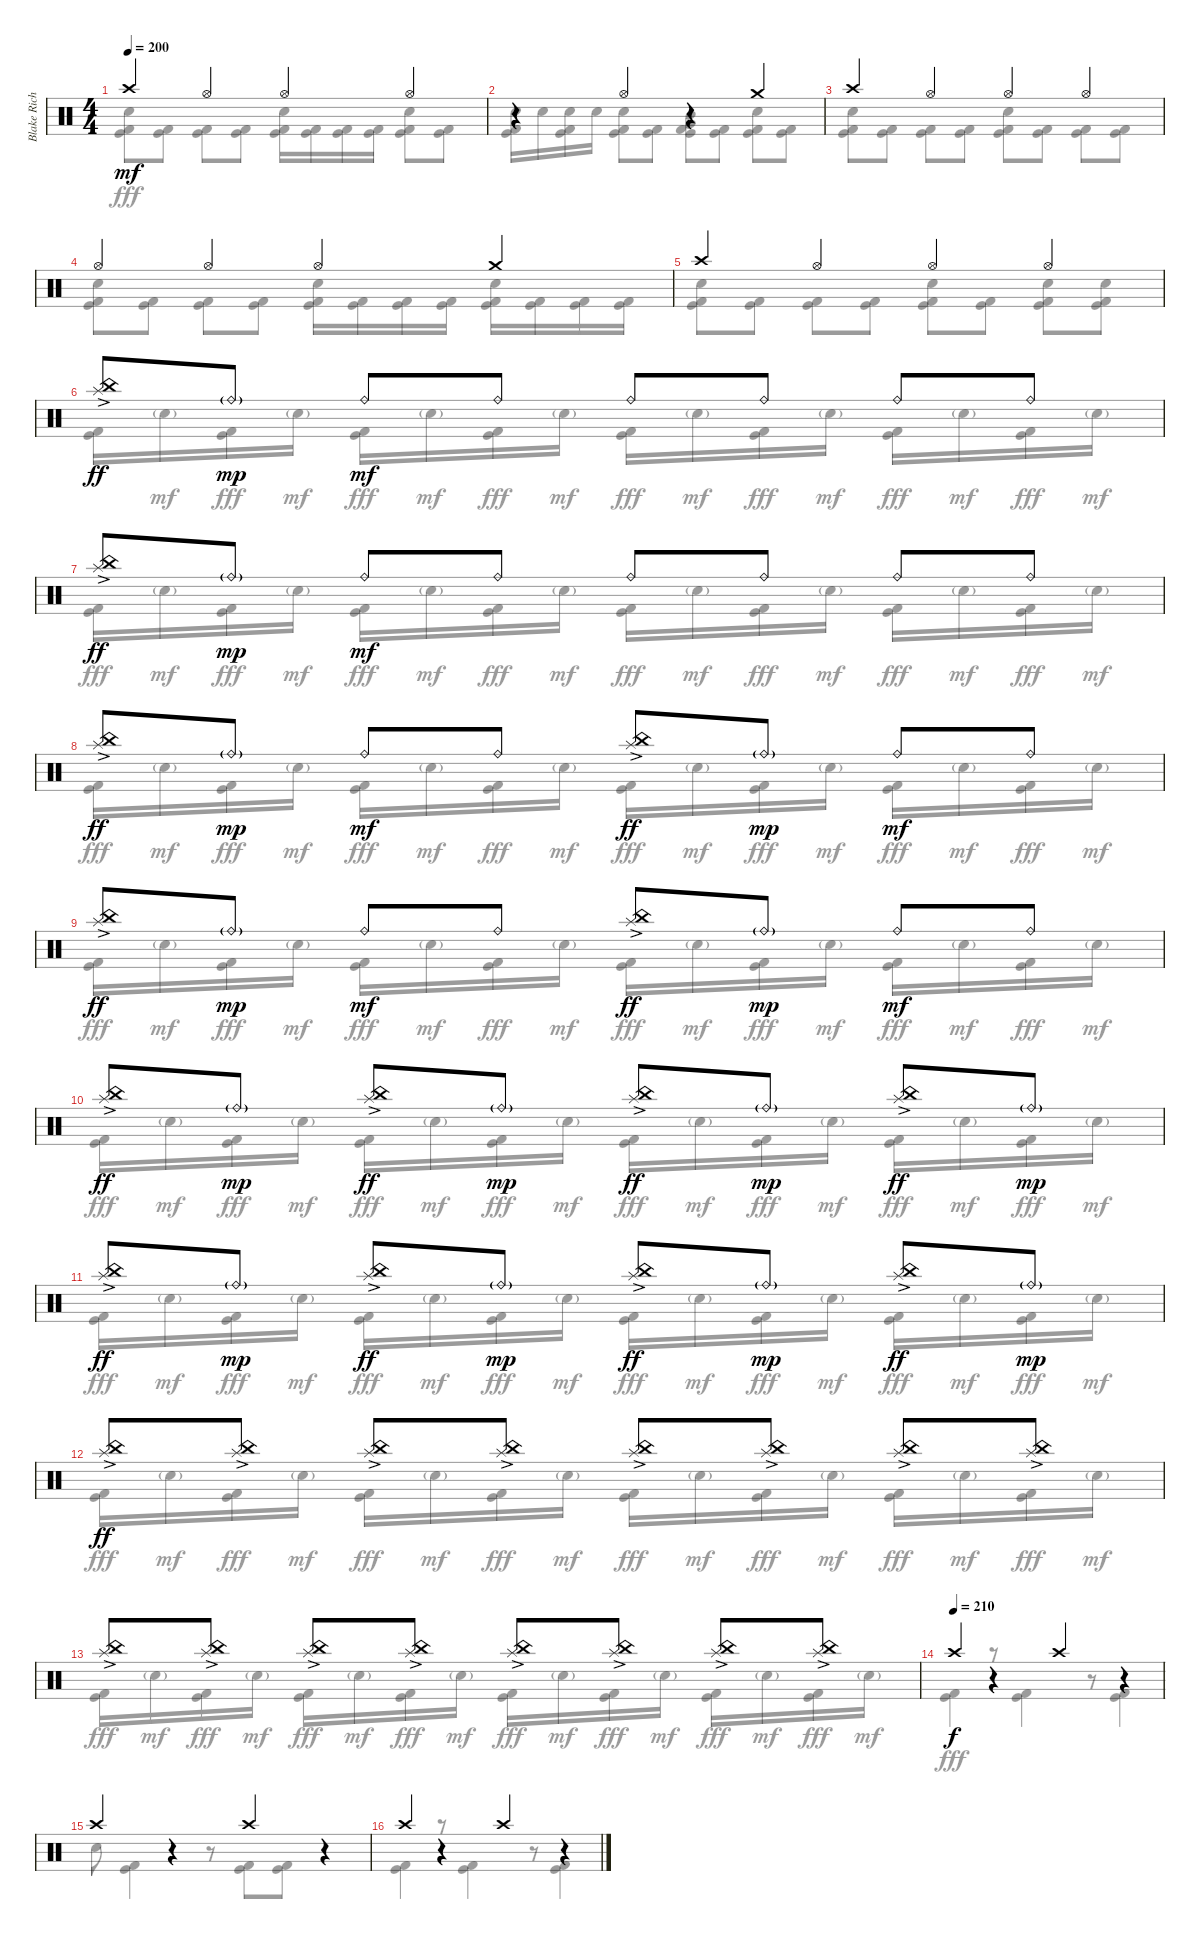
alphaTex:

\track ("Blake Richardson Drums" "Blake Rich") {instrument percussion}
\staff {score}
\articulation defaults
\voice
\ts (4 4)
\tempo 200
\clef neutral
\ks c "Crash high (hit)".4{dy mf} "Hi-Hat (open)".4 "Hi-Hat (open)".4 "Hi-Hat (open)".4
|
r.4 "Hi-Hat (open)".4 r.4 "Crash medium (hit)".4 |
"Crash high (hit)".4 "Hi-Hat (open)".4 "Hi-Hat (open)".4 "Hi-Hat (open)".4 |
"Hi-Hat (open)".4 "Hi-Hat (open)".4 "Hi-Hat (open)".4 "Crash medium (hit)".4 |
"Crash high (hit)".4 "Hi-Hat (open)".4 "Hi-Hat (open)".4 "Hi-Hat (open)".4 |
("China (hit)" "Splash (hit)"{ac}).8{dy ff} "Ride (bell)"{g}.8{dy mp} "Ride (bell)".8{dy mf} "Ride (bell)".8 "Ride (bell)".8 "Ride (bell)".8 "Ride (bell)".8 "Ride (bell)".8 |
("China (hit)" "Splash (hit)"{ac}).8{dy ff} "Ride (bell)"{g}.8{dy mp} "Ride (bell)".8{dy mf} "Ride (bell)".8 "Ride (bell)".8 "Ride (bell)".8 "Ride (bell)".8 "Ride (bell)".8 |
("China (hit)" "Splash (hit)"{ac}).8{dy ff} "Ride (bell)"{g}.8{dy mp} "Ride (bell)".8{dy mf} "Ride (bell)".8 ("China (hit)" "Splash (hit)"{ac}).8{dy ff} "Ride (bell)"{g}.8{dy mp} "Ride (bell)".8{dy mf} "Ride (bell)".8 |
("China (hit)" "Splash (hit)"{ac}).8{dy ff} "Ride (bell)"{g}.8{dy mp} "Ride (bell)".8{dy mf} "Ride (bell)".8 ("China (hit)" "Splash (hit)"{ac}).8{dy ff} "Ride (bell)"{g}.8{dy mp} "Ride (bell)".8{dy mf} "Ride (bell)".8 |
("China (hit)" "Splash (hit)"{ac}).8{dy ff} "Ride (bell)"{g}.8{dy mp} ("China (hit)" "Splash (hit)"{ac}).8{dy ff} "Ride (bell)"{g}.8{dy mp} ("China (hit)" "Splash (hit)"{ac}).8{dy ff} "Ride (bell)"{g}.8{dy mp} ("China (hit)" "Splash (hit)"{ac}).8{dy ff} "Ride (bell)"{g}.8{dy mp} |
("China (hit)" "Splash (hit)"{ac}).8{dy ff} "Ride (bell)"{g}.8{dy mp} ("China (hit)" "Splash (hit)"{ac}).8{dy ff} "Ride (bell)"{g}.8{dy mp} ("China (hit)" "Splash (hit)"{ac}).8{dy ff} "Ride (bell)"{g}.8{dy mp} ("China (hit)" "Splash (hit)"{ac}).8{dy ff} "Ride (bell)"{g}.8{dy mp} |
("China (hit)" "Splash (hit)"{ac}).8{dy ff} ("China (hit)" "Splash (hit)"{ac}).8 ("China (hit)" "Splash (hit)"{ac}).8 ("China (hit)" "Splash (hit)"{ac}).8 ("China (hit)" "Splash (hit)"{ac}).8 ("China (hit)" "Splash (hit)"{ac}).8 ("China (hit)" "Splash (hit)"{ac}).8 ("China (hit)" "Splash (hit)"{ac}).8 |
("China (hit)" "Splash (hit)"{ac}).8 ("China (hit)" "Splash (hit)"{ac}).8 ("China (hit)" "Splash (hit)"{ac}).8 ("China (hit)" "Splash (hit)"{ac}).8 ("China (hit)" "Splash (hit)"{ac}).8 ("China (hit)" "Splash (hit)"{ac}).8 ("China (hit)" "Splash (hit)"{ac}).8 ("China (hit)" "Splash (hit)"{ac}).8 |
\tempo (210)
"Crash high (hit)".4{dy f} r.4 "Crash high (hit)".4 r.4 |
"Crash high (hit)".4 r.4 "Crash high (hit)".4 r.4 |
"Crash high (hit)".4 r.4 "Crash high (hit)".4 r.4
\voice
\clef neutral
\ottava regular
\simile none
\ks c
("Electric Snare (hit)" "Kick (hit)" "Kick (hit) 2").8{dy fff} ("Kick (hit)" "Kick (hit) 2").8 ("Kick (hit)" "Kick (hit) 2").8 ("Kick (hit)" "Kick (hit) 2").8 ("Electric Snare (hit)" "Kick (hit)" "Kick (hit) 2").16 ("Kick (hit)" "Kick (hit) 2").16 ("Kick (hit)" "Kick (hit) 2").16 ("Kick (hit)" "Kick (hit) 2").16 ("Electric Snare (hit)" "Kick (hit)" "Kick (hit) 2").8 ("Kick (hit)" "Kick (hit) 2").8 |
("Electric Snare (hit)" "Kick (hit)" "Kick (hit) 2").16 "Electric Snare (hit)".16 ("Electric Snare (hit)" "Kick (hit)" "Kick (hit) 2").16 "Electric Snare (hit)".16 ("Electric Snare (hit)" "Kick (hit)" "Kick (hit) 2").8 ("Kick (hit)" "Kick (hit) 2").8 ("Mid Tom (hit)" "Kick (hit)" "Very Low Tom (hit)" "Kick (hit) 2").8 ("Kick (hit)" "Kick (hit) 2").8 ("Electric Snare (hit)" "Kick (hit)" "Kick (hit) 2").8 ("Kick (hit)" "Kick (hit) 2").8 |
("Electric Snare (hit)" "Kick (hit)" "Kick (hit) 2").8 ("Kick (hit)" "Kick (hit) 2").8 ("Kick (hit)" "Kick (hit) 2").8 ("Kick (hit)" "Kick (hit) 2").8 ("Electric Snare (hit)" "Kick (hit)" "Kick (hit) 2").8 ("Kick (hit)" "Kick (hit) 2").8 ("Kick (hit)" "Kick (hit) 2").8 ("Kick (hit)" "Kick (hit) 2").8 |
("Electric Snare (hit)" "Kick (hit)" "Kick (hit) 2").8 ("Kick (hit)" "Kick (hit) 2").8 ("Kick (hit)" "Kick (hit) 2").8 ("Kick (hit)" "Kick (hit) 2").8 ("Electric Snare (hit)" "Kick (hit)" "Kick (hit) 2").16 ("Kick (hit)" "Kick (hit) 2").16 ("Kick (hit)" "Kick (hit) 2").16 ("Kick (hit)" "Kick (hit) 2").16 ("Electric Snare (hit)" "Kick (hit)" "Kick (hit) 2").16 ("Kick (hit)" "Kick (hit) 2").16 ("Kick (hit)" "Kick (hit) 2").16 ("Kick (hit)" "Kick (hit) 2").16 |
("Electric Snare (hit)" "Kick (hit)" "Kick (hit) 2").8 ("Kick (hit)" "Kick (hit) 2").8 ("Kick (hit)" "Kick (hit) 2").8 ("Kick (hit)" "Kick (hit) 2").8 ("Electric Snare (hit)" "Kick (hit)" "Kick (hit) 2").8 ("Kick (hit)" "Kick (hit) 2").8 ("Electric Snare (hit)" "Kick (hit)" "Kick (hit) 2").8 ("Electric Snare (hit)" "Kick (hit)" "Kick (hit) 2").8 |
("Kick (hit)" "Kick (hit) 2").16 "Electric Snare (hit)"{g}.16{dy mf} ("Kick (hit)" "Kick (hit) 2").16{dy fff} "Electric Snare (hit)"{g}.16{dy mf} ("Kick (hit)" "Kick (hit) 2").16{dy fff} "Electric Snare (hit)"{g}.16{dy mf} ("Kick (hit)" "Kick (hit) 2").16{dy fff} "Electric Snare (hit)"{g}.16{dy mf} ("Kick (hit)" "Kick (hit) 2").16{dy fff} "Electric Snare (hit)"{g}.16{dy mf} ("Kick (hit)" "Kick (hit) 2").16{dy fff} "Electric Snare (hit)"{g}.16{dy mf} ("Kick (hit)" "Kick (hit) 2").16{dy fff} "Electric Snare (hit)"{g}.16{dy mf} ("Kick (hit)" "Kick (hit) 2").16{dy fff} "Electric Snare (hit)"{g}.16{dy mf} |
("Kick (hit)" "Kick (hit) 2").16{dy fff} "Electric Snare (hit)"{g}.16{dy mf} ("Kick (hit)" "Kick (hit) 2").16{dy fff} "Electric Snare (hit)"{g}.16{dy mf} ("Kick (hit)" "Kick (hit) 2").16{dy fff} "Electric Snare (hit)"{g}.16{dy mf} ("Kick (hit)" "Kick (hit) 2").16{dy fff} "Electric Snare (hit)"{g}.16{dy mf} ("Kick (hit)" "Kick (hit) 2").16{dy fff} "Electric Snare (hit)"{g}.16{dy mf} ("Kick (hit)" "Kick (hit) 2").16{dy fff} "Electric Snare (hit)"{g}.16{dy mf} ("Kick (hit)" "Kick (hit) 2").16{dy fff} "Electric Snare (hit)"{g}.16{dy mf} ("Kick (hit)" "Kick (hit) 2").16{dy fff} "Electric Snare (hit)"{g}.16{dy mf} |
("Kick (hit)" "Kick (hit) 2").16{dy fff} "Electric Snare (hit)"{g}.16{dy mf} ("Kick (hit)" "Kick (hit) 2").16{dy fff} "Electric Snare (hit)"{g}.16{dy mf} ("Kick (hit)" "Kick (hit) 2").16{dy fff} "Electric Snare (hit)"{g}.16{dy mf} ("Kick (hit)" "Kick (hit) 2").16{dy fff} "Electric Snare (hit)"{g}.16{dy mf} ("Kick (hit)" "Kick (hit) 2").16{dy fff} "Electric Snare (hit)"{g}.16{dy mf} ("Kick (hit)" "Kick (hit) 2").16{dy fff} "Electric Snare (hit)"{g}.16{dy mf} ("Kick (hit)" "Kick (hit) 2").16{dy fff} "Electric Snare (hit)"{g}.16{dy mf} ("Kick (hit)" "Kick (hit) 2").16{dy fff} "Electric Snare (hit)"{g}.16{dy mf} |
("Kick (hit)" "Kick (hit) 2").16{dy fff} "Electric Snare (hit)"{g}.16{dy mf} ("Kick (hit)" "Kick (hit) 2").16{dy fff} "Electric Snare (hit)"{g}.16{dy mf} ("Kick (hit)" "Kick (hit) 2").16{dy fff} "Electric Snare (hit)"{g}.16{dy mf} ("Kick (hit)" "Kick (hit) 2").16{dy fff} "Electric Snare (hit)"{g}.16{dy mf} ("Kick (hit)" "Kick (hit) 2").16{dy fff} "Electric Snare (hit)"{g}.16{dy mf} ("Kick (hit)" "Kick (hit) 2").16{dy fff} "Electric Snare (hit)"{g}.16{dy mf} ("Kick (hit)" "Kick (hit) 2").16{dy fff} "Electric Snare (hit)"{g}.16{dy mf} ("Kick (hit)" "Kick (hit) 2").16{dy fff} "Electric Snare (hit)"{g}.16{dy mf} |
("Kick (hit)" "Kick (hit) 2").16{dy fff} "Electric Snare (hit)"{g}.16{dy mf} ("Kick (hit)" "Kick (hit) 2").16{dy fff} "Electric Snare (hit)"{g}.16{dy mf} ("Kick (hit)" "Kick (hit) 2").16{dy fff} "Electric Snare (hit)"{g}.16{dy mf} ("Kick (hit)" "Kick (hit) 2").16{dy fff} "Electric Snare (hit)"{g}.16{dy mf} ("Kick (hit)" "Kick (hit) 2").16{dy fff} "Electric Snare (hit)"{g}.16{dy mf} ("Kick (hit)" "Kick (hit) 2").16{dy fff} "Electric Snare (hit)"{g}.16{dy mf} ("Kick (hit)" "Kick (hit) 2").16{dy fff} "Electric Snare (hit)"{g}.16{dy mf} ("Kick (hit)" "Kick (hit) 2").16{dy fff} "Electric Snare (hit)"{g}.16{dy mf} |
("Kick (hit)" "Kick (hit) 2").16{dy fff} "Electric Snare (hit)"{g}.16{dy mf} ("Kick (hit)" "Kick (hit) 2").16{dy fff} "Electric Snare (hit)"{g}.16{dy mf} ("Kick (hit)" "Kick (hit) 2").16{dy fff} "Electric Snare (hit)"{g}.16{dy mf} ("Kick (hit)" "Kick (hit) 2").16{dy fff} "Electric Snare (hit)"{g}.16{dy mf} ("Kick (hit)" "Kick (hit) 2").16{dy fff} "Electric Snare (hit)"{g}.16{dy mf} ("Kick (hit)" "Kick (hit) 2").16{dy fff} "Electric Snare (hit)"{g}.16{dy mf} ("Kick (hit)" "Kick (hit) 2").16{dy fff} "Electric Snare (hit)"{g}.16{dy mf} ("Kick (hit)" "Kick (hit) 2").16{dy fff} "Electric Snare (hit)"{g}.16{dy mf} |
("Kick (hit)" "Kick (hit) 2").16{dy fff} "Electric Snare (hit)"{g}.16{dy mf} ("Kick (hit)" "Kick (hit) 2").16{dy fff} "Electric Snare (hit)"{g}.16{dy mf} ("Kick (hit)" "Kick (hit) 2").16{dy fff} "Electric Snare (hit)"{g}.16{dy mf} ("Kick (hit)" "Kick (hit) 2").16{dy fff} "Electric Snare (hit)"{g}.16{dy mf} ("Kick (hit)" "Kick (hit) 2").16{dy fff} "Electric Snare (hit)"{g}.16{dy mf} ("Kick (hit)" "Kick (hit) 2").16{dy fff} "Electric Snare (hit)"{g}.16{dy mf} ("Kick (hit)" "Kick (hit) 2").16{dy fff} "Electric Snare (hit)"{g}.16{dy mf} ("Kick (hit)" "Kick (hit) 2").16{dy fff} "Electric Snare (hit)"{g}.16{dy mf} |
("Kick (hit)" "Kick (hit) 2").16{dy fff} "Electric Snare (hit)"{g}.16{dy mf} ("Kick (hit)" "Kick (hit) 2").16{dy fff} "Electric Snare (hit)"{g}.16{dy mf} ("Kick (hit)" "Kick (hit) 2").16{dy fff} "Electric Snare (hit)"{g}.16{dy mf} ("Kick (hit)" "Kick (hit) 2").16{dy fff} "Electric Snare (hit)"{g}.16{dy mf} ("Kick (hit)" "Kick (hit) 2").16{dy fff} "Electric Snare (hit)"{g}.16{dy mf} ("Kick (hit)" "Kick (hit) 2").16{dy fff} "Electric Snare (hit)"{g}.16{dy mf} ("Kick (hit)" "Kick (hit) 2").16{dy fff} "Electric Snare (hit)"{g}.16{dy mf} ("Kick (hit)" "Kick (hit) 2").16{dy fff} "Electric Snare (hit)"{g}.16{dy mf} |
("Kick (hit)" "Kick (hit) 2").4{dy fff} r.8 ("Kick (hit)" "Kick (hit) 2").4 r.8 ("Kick (hit)" "Kick (hit) 2").4 |
"Electric Snare (hit)".8 ("Kick (hit)" "Kick (hit) 2").4 r.8 ("Kick (hit)" "Kick (hit) 2").8 ("Kick (hit)" "Kick (hit) 2").8 r.4 |
("Kick (hit)" "Kick (hit) 2").4 r.8 ("Kick (hit)" "Kick (hit) 2").4 r.8 ("Kick (hit)" "Kick (hit) 2").4
